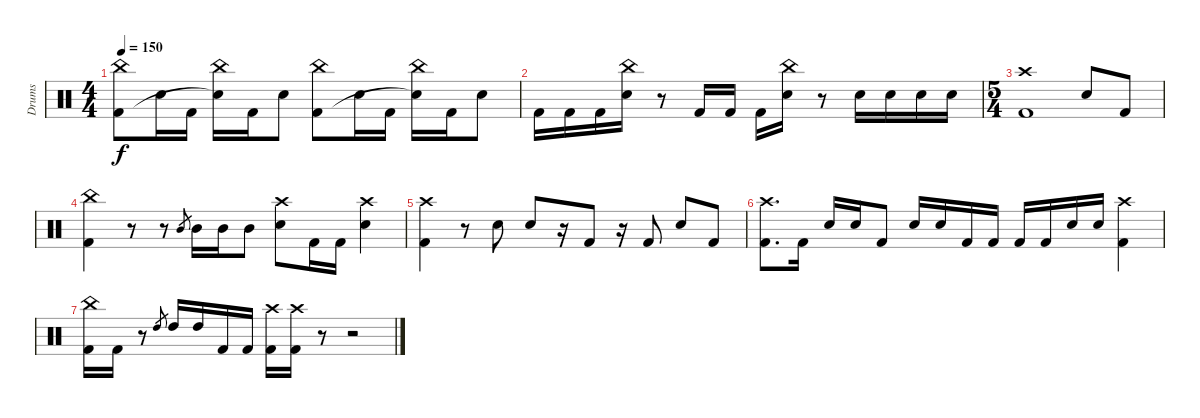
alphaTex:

\track ("Drums" "Drums") {instrument percussion}
\staff {score}
\articulation defaults
\ts (4 4)
\tempo 150
\clef neutral
\ks c
("China (hit)" "Kick (hit) 2").8{dy f} "Snare (hit) 2".16 "Kick (hit) 2".16 ("China (hit)" "Snare (hit)"{t}).16 "Kick (hit) 2".16 "Snare (hit) 2".8 ("China (hit)" "Kick (hit) 2").8 "Snare (hit) 2".16 "Kick (hit) 2".16 ("China (hit)" "Snare (hit)"{t}).16 "Kick (hit) 2".16 "Snare (hit) 2".8 |
"Kick (hit) 2".16 "Kick (hit) 2".16 "Kick (hit) 2".16 ("China (hit)" "Snare (hit) 2").16 r.8 "Kick (hit) 2".16 "Kick (hit) 2".16 "Kick (hit) 2".16 ("China (hit)" "Snare (hit) 2").16 r.8 "Snare (hit) 2".16 "Snare (hit) 2".16 "Snare (hit) 2".16 "Snare (hit) 2".16 |
\ts (5 4)
("Crash high (hit)" "Kick (hit) 2").1 "Snare (hit) 2".8 "Kick (hit) 2".8 |
("China (hit)" "Kick (hit) 2").4 r.8 r.8 "Mid Tom (hit)".8{gr} "Mid Tom (hit)".16 "Mid Tom (hit)".16 "Mid Tom (hit)".8 ("Crash high (hit)" "Snare (hit) 2").8 "Kick (hit) 2".16 "Kick (hit) 2".16 ("Crash high (hit)" "Snare (hit) 2").4 |
("Crash high (hit)" "Kick (hit) 2").4 r.8 "Snare (hit) 2".8 "Snare (hit) 2".8 r.16 "Kick (hit) 2".8 r.16 "Kick (hit) 2".8 "Snare (hit) 2".8 "Kick (hit) 2".8 |
("Crash high (hit)" "Kick (hit) 2").8{d} "Kick (hit) 2".16 "Snare (hit) 2".16 "Snare (hit) 2".16 "Kick (hit) 2".8 "Snare (hit) 2".16 "Snare (hit) 2".16 "Kick (hit) 2".16 "Kick (hit) 2".16 "Kick (hit) 2".16 "Kick (hit) 2".16 "Snare (hit) 2".16 "Snare (hit) 2".16 ("Crash high (hit)" "Kick (hit) 2").4 |
("China (hit)" "Kick (hit) 2").16 "Kick (hit) 2".16 r.8 "High Tom (hit)".8{gr} "High Tom (hit)".16 "High Tom (hit)".16 "Kick (hit) 2".16 "Kick (hit) 2".16 ("Crash high (hit)" "Kick (hit) 2").16 ("Crash high (hit)" "Kick (hit) 2").16 r.8 r.2
